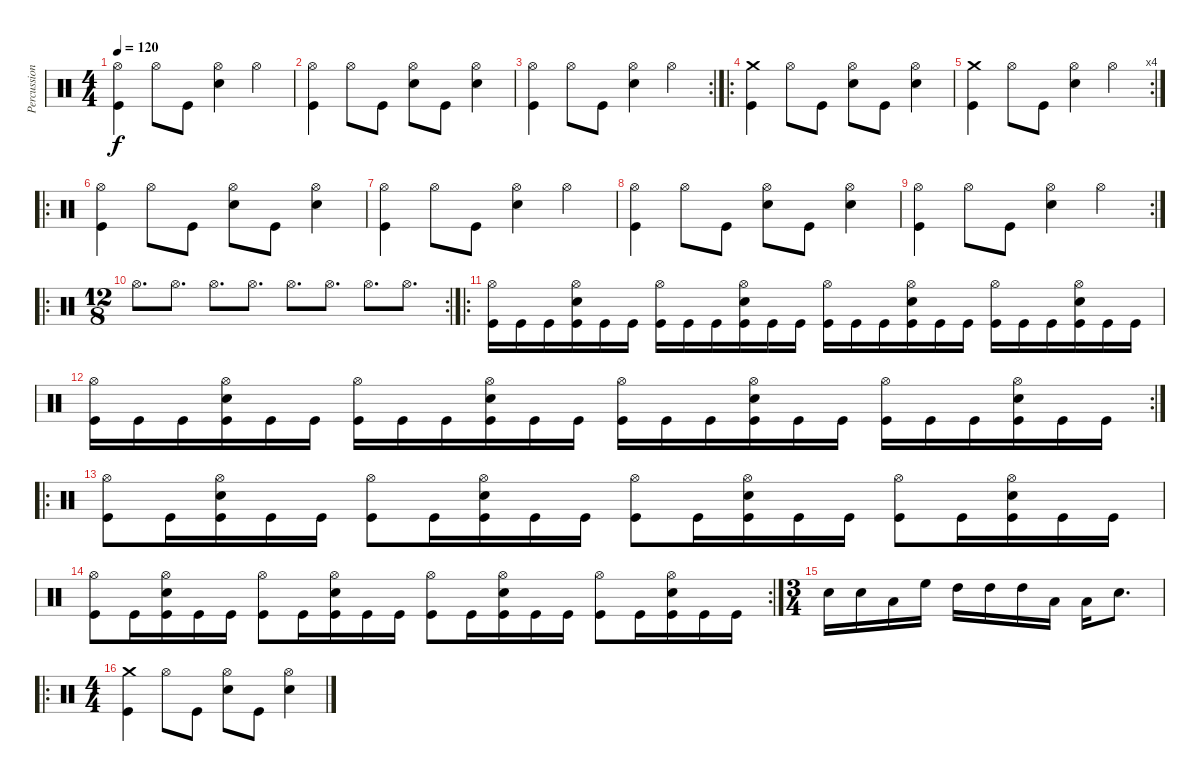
\track ("Percussion" "Percussion") {instrument percussion}
\staff {score}
\articulation defaults
\ts (4 4)
\tempo 120
\clef neutral
\ks c
("Hi-Hat (open)" "Kick (hit)").4{dy f} "Hi-Hat (open)".8 "Kick (hit)".8 ("Hi-Hat (open)" "Snare (hit) 2").4 "Hi-Hat (open)".4 |
("Hi-Hat (open)" "Kick (hit)").4 "Hi-Hat (open)".8 "Kick (hit)".8 ("Hi-Hat (open)" "Snare (hit) 2").8 "Kick (hit)".8 ("Hi-Hat (open)" "Snare (hit) 2").4 |
\rc 2
("Hi-Hat (open)" "Kick (hit)").4 "Hi-Hat (open)".8 "Kick (hit)".8 ("Hi-Hat (open)" "Snare (hit) 2").4 "Hi-Hat (open)".4 |
\ro
("Crash medium (hit)" "Kick (hit)").4 "Hi-Hat (open)".8 "Kick (hit)".8 ("Hi-Hat (open)" "Snare (hit) 2").8 "Kick (hit)".8 ("Hi-Hat (open)" "Snare (hit) 2").4 |
\rc 4
("Crash medium (hit)" "Kick (hit)").4 "Hi-Hat (open)".8 "Kick (hit)".8 ("Hi-Hat (open)" "Snare (hit) 2").4 "Hi-Hat (open)".4 |
\ro
("Hi-Hat (open)" "Kick (hit)").4 "Hi-Hat (open)".8 "Kick (hit)".8 ("Hi-Hat (open)" "Snare (hit) 2").8 "Kick (hit)".8 ("Hi-Hat (open)" "Snare (hit) 2").4 |
("Hi-Hat (open)" "Kick (hit)").4 "Hi-Hat (open)".8 "Kick (hit)".8 ("Hi-Hat (open)" "Snare (hit) 2").4 "Hi-Hat (open)".4 |
("Hi-Hat (open)" "Kick (hit)").4 "Hi-Hat (open)".8 "Kick (hit)".8 ("Hi-Hat (open)" "Snare (hit) 2").8 "Kick (hit)".8 ("Hi-Hat (open)" "Snare (hit) 2").4 |
\rc 2
("Hi-Hat (open)" "Kick (hit)").4 "Hi-Hat (open)".8 "Kick (hit)".8 ("Hi-Hat (open)" "Snare (hit) 2").4 "Hi-Hat (open)".4 |
\ro
\rc 2
\ts (12 8)
"Hi-Hat (open)".8{d} "Hi-Hat (open)".8{d} "Hi-Hat (open)".8{d} "Hi-Hat (open)".8{d} "Hi-Hat (open)".8{d} "Hi-Hat (open)".8{d} "Hi-Hat (open)".8{d} "Hi-Hat (open)".8{d} |
\ro
("Hi-Hat (open)" "Kick (hit)").16 "Kick (hit)".16 "Kick (hit)".16 ("Hi-Hat (open)" "Snare (hit) 2" "Kick (hit)").16 "Kick (hit)".16 "Kick (hit)".16 ("Hi-Hat (open)" "Kick (hit)").16 "Kick (hit)".16 "Kick (hit)".16 ("Hi-Hat (open)" "Snare (hit) 2" "Kick (hit)").16 "Kick (hit)".16 "Kick (hit)".16 ("Hi-Hat (open)" "Kick (hit)").16 "Kick (hit)".16 "Kick (hit)".16 ("Hi-Hat (open)" "Snare (hit) 2" "Kick (hit)").16 "Kick (hit)".16 "Kick (hit)".16 ("Hi-Hat (open)" "Kick (hit)").16 "Kick (hit)".16 "Kick (hit)".16 ("Hi-Hat (open)" "Snare (hit) 2" "Kick (hit)").16 "Kick (hit)".16 "Kick (hit)".16 |
\rc 2
("Hi-Hat (open)" "Kick (hit)").16 "Kick (hit)".16 "Kick (hit)".16 ("Hi-Hat (open)" "Snare (hit) 2" "Kick (hit)").16 "Kick (hit)".16 "Kick (hit)".16 ("Hi-Hat (open)" "Kick (hit)").16 "Kick (hit)".16 "Kick (hit)".16 ("Hi-Hat (open)" "Snare (hit) 2" "Kick (hit)").16 "Kick (hit)".16 "Kick (hit)".16 ("Hi-Hat (open)" "Kick (hit)").16 "Kick (hit)".16 "Kick (hit)".16 ("Hi-Hat (open)" "Snare (hit) 2" "Kick (hit)").16 "Kick (hit)".16 "Kick (hit)".16 ("Hi-Hat (open)" "Kick (hit)").16 "Kick (hit)".16 "Kick (hit)".16 ("Hi-Hat (open)" "Snare (hit) 2" "Kick (hit)").16 "Kick (hit)".16 "Kick (hit)".16 |
\ro
("Hi-Hat (open)" "Kick (hit)").8 "Kick (hit)".16 ("Hi-Hat (open)" "Snare (hit) 2" "Kick (hit)").16 "Kick (hit)".16 "Kick (hit)".16 ("Hi-Hat (open)" "Kick (hit)").8 "Kick (hit)".16 ("Hi-Hat (open)" "Snare (hit) 2" "Kick (hit)").16 "Kick (hit)".16 "Kick (hit)".16 ("Hi-Hat (open)" "Kick (hit)").8 "Kick (hit)".16 ("Hi-Hat (open)" "Snare (hit) 2" "Kick (hit)").16 "Kick (hit)".16 "Kick (hit)".16 ("Hi-Hat (open)" "Kick (hit)").8 "Kick (hit)".16 ("Hi-Hat (open)" "Snare (hit) 2" "Kick (hit)").16 "Kick (hit)".16 "Kick (hit)".16 |
\rc 2
("Hi-Hat (open)" "Kick (hit)").8 "Kick (hit)".16 ("Hi-Hat (open)" "Snare (hit) 2" "Kick (hit)").16 "Kick (hit)".16 "Kick (hit)".16 ("Hi-Hat (open)" "Kick (hit)").8 "Kick (hit)".16 ("Hi-Hat (open)" "Snare (hit) 2" "Kick (hit)").16 "Kick (hit)".16 "Kick (hit)".16 ("Hi-Hat (open)" "Kick (hit)").8 "Kick (hit)".16 ("Hi-Hat (open)" "Snare (hit) 2" "Kick (hit)").16 "Kick (hit)".16 "Kick (hit)".16 ("Hi-Hat (open)" "Kick (hit)").8 "Kick (hit)".16 ("Hi-Hat (open)" "Snare (hit) 2" "Kick (hit)").16 "Kick (hit)".16 "Kick (hit)".16 |
\ts (3 4)
"Snare (hit) 2".16 "Snare (hit) 2".16 "Low Floor Tom (hit)".16 "High Floor Tom (hit)".16 "High Tom (hit)".16 "High Tom (hit)".16 "High Tom (hit)".16 "Low Tom (hit)".16 "Low Floor Tom (hit)".16 "Snare (hit) 2".8{d} |
\ro
\ts (4 4)
("Crash medium (hit)" "Kick (hit)").4 "Hi-Hat (open)".8 "Kick (hit)".8 ("Hi-Hat (open)" "Snare (hit) 2").8 "Kick (hit)".8 ("Hi-Hat (open)" "Snare (hit) 2").4
